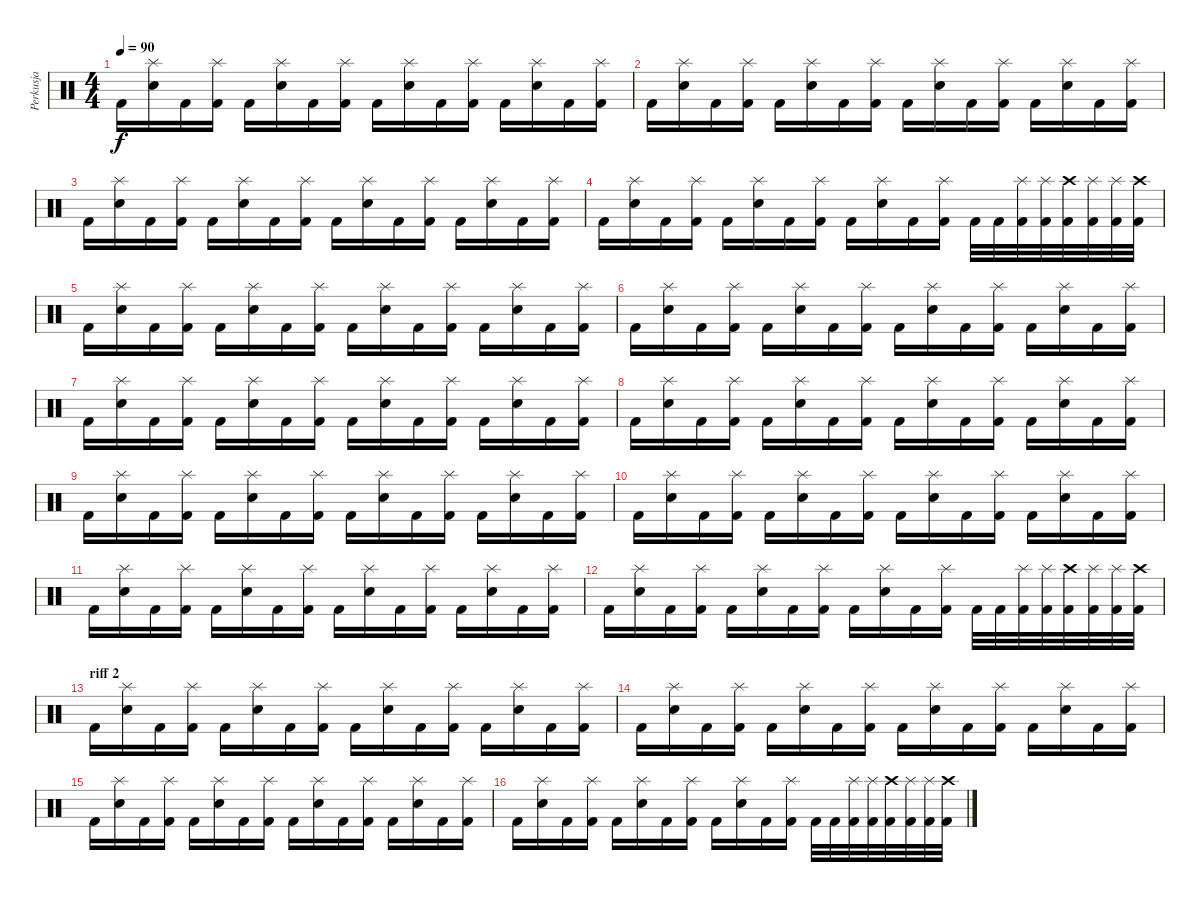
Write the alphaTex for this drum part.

\track ("Perkusja" "Perkusja") {instrument percussion}
\staff {score}
\articulation defaults
\ts (4 4)
\tempo 90
\clef neutral
\ks c "Kick (hit) 2".16{dy f}
("Splash (hit)" "Snare (hit) 2").16 "Kick (hit) 2".16 ("Splash (hit)" "Kick (hit) 2").16 "Kick (hit) 2".16 ("Splash (hit)" "Snare (hit) 2").16 "Kick (hit) 2".16 ("Splash (hit)" "Kick (hit) 2").16 "Kick (hit) 2".16 ("Splash (hit)" "Snare (hit) 2").16 "Kick (hit) 2".16 ("Splash (hit)" "Kick (hit) 2").16 "Kick (hit) 2".16 ("Splash (hit)" "Snare (hit) 2").16 "Kick (hit) 2".16 ("Splash (hit)" "Kick (hit) 2").16 |
"Kick (hit) 2".16 ("Splash (hit)" "Snare (hit) 2").16 "Kick (hit) 2".16 ("Splash (hit)" "Kick (hit) 2").16 "Kick (hit) 2".16 ("Splash (hit)" "Snare (hit) 2").16 "Kick (hit) 2".16 ("Splash (hit)" "Kick (hit) 2").16 "Kick (hit) 2".16 ("Splash (hit)" "Snare (hit) 2").16 "Kick (hit) 2".16 ("Splash (hit)" "Kick (hit) 2").16 "Kick (hit) 2".16 ("Splash (hit)" "Snare (hit) 2").16 "Kick (hit) 2".16 ("Splash (hit)" "Kick (hit) 2").16 |
"Kick (hit) 2".16 ("Splash (hit)" "Snare (hit) 2").16 "Kick (hit) 2".16 ("Splash (hit)" "Kick (hit) 2").16 "Kick (hit) 2".16 ("Splash (hit)" "Snare (hit) 2").16 "Kick (hit) 2".16 ("Splash (hit)" "Kick (hit) 2").16 "Kick (hit) 2".16 ("Splash (hit)" "Snare (hit) 2").16 "Kick (hit) 2".16 ("Splash (hit)" "Kick (hit) 2").16 "Kick (hit) 2".16 ("Splash (hit)" "Snare (hit) 2").16 "Kick (hit) 2".16 ("Splash (hit)" "Kick (hit) 2").16 |
"Kick (hit) 2".16 ("Splash (hit)" "Snare (hit) 2").16 "Kick (hit) 2".16 ("Splash (hit)" "Kick (hit) 2").16 "Kick (hit) 2".16 ("Splash (hit)" "Snare (hit) 2").16 "Kick (hit) 2".16 ("Splash (hit)" "Kick (hit) 2").16 "Kick (hit) 2".16 ("Splash (hit)" "Snare (hit) 2").16 "Kick (hit) 2".16 ("Splash (hit)" "Kick (hit) 2").16 "Kick (hit) 2".32 "Kick (hit) 2".32 ("Splash (hit)" "Kick (hit) 2").32 ("Splash (hit)" "Kick (hit) 2").32 ("Crash high (hit)" "Kick (hit) 2").32 ("Splash (hit)" "Kick (hit) 2").32 ("Splash (hit)" "Kick (hit) 2").32 ("Crash high (hit)" "Kick (hit) 2").32 |
"Kick (hit) 2".16 ("Splash (hit)" "Snare (hit) 2").16 "Kick (hit) 2".16 ("Splash (hit)" "Kick (hit) 2").16 "Kick (hit) 2".16 ("Splash (hit)" "Snare (hit) 2").16 "Kick (hit) 2".16 ("Splash (hit)" "Kick (hit) 2").16 "Kick (hit) 2".16 ("Splash (hit)" "Snare (hit) 2").16 "Kick (hit) 2".16 ("Splash (hit)" "Kick (hit) 2").16 "Kick (hit) 2".16 ("Splash (hit)" "Snare (hit) 2").16 "Kick (hit) 2".16 ("Splash (hit)" "Kick (hit) 2").16 |
"Kick (hit) 2".16 ("Splash (hit)" "Snare (hit) 2").16 "Kick (hit) 2".16 ("Splash (hit)" "Kick (hit) 2").16 "Kick (hit) 2".16 ("Splash (hit)" "Snare (hit) 2").16 "Kick (hit) 2".16 ("Splash (hit)" "Kick (hit) 2").16 "Kick (hit) 2".16 ("Splash (hit)" "Snare (hit) 2").16 "Kick (hit) 2".16 ("Splash (hit)" "Kick (hit) 2").16 "Kick (hit) 2".16 ("Splash (hit)" "Snare (hit) 2").16 "Kick (hit) 2".16 ("Splash (hit)" "Kick (hit) 2").16 |
"Kick (hit) 2".16 ("Splash (hit)" "Snare (hit) 2").16 "Kick (hit) 2".16 ("Splash (hit)" "Kick (hit) 2").16 "Kick (hit) 2".16 ("Splash (hit)" "Snare (hit) 2").16 "Kick (hit) 2".16 ("Splash (hit)" "Kick (hit) 2").16 "Kick (hit) 2".16 ("Splash (hit)" "Snare (hit) 2").16 "Kick (hit) 2".16 ("Splash (hit)" "Kick (hit) 2").16 "Kick (hit) 2".16 ("Splash (hit)" "Snare (hit) 2").16 "Kick (hit) 2".16 ("Splash (hit)" "Kick (hit) 2").16 |
"Kick (hit) 2".16 ("Splash (hit)" "Snare (hit) 2").16 "Kick (hit) 2".16 ("Splash (hit)" "Kick (hit) 2").16 "Kick (hit) 2".16 ("Splash (hit)" "Snare (hit) 2").16 "Kick (hit) 2".16 ("Splash (hit)" "Kick (hit) 2").16 "Kick (hit) 2".16 ("Splash (hit)" "Snare (hit) 2").16 "Kick (hit) 2".16 ("Splash (hit)" "Kick (hit) 2").16 "Kick (hit) 2".16 ("Splash (hit)" "Snare (hit) 2").16 "Kick (hit) 2".16 ("Splash (hit)" "Kick (hit) 2").16 |
"Kick (hit) 2".16 ("Splash (hit)" "Snare (hit) 2").16 "Kick (hit) 2".16 ("Splash (hit)" "Kick (hit) 2").16 "Kick (hit) 2".16 ("Splash (hit)" "Snare (hit) 2").16 "Kick (hit) 2".16 ("Splash (hit)" "Kick (hit) 2").16 "Kick (hit) 2".16 ("Splash (hit)" "Snare (hit) 2").16 "Kick (hit) 2".16 ("Splash (hit)" "Kick (hit) 2").16 "Kick (hit) 2".16 ("Splash (hit)" "Snare (hit) 2").16 "Kick (hit) 2".16 ("Splash (hit)" "Kick (hit) 2").16 |
"Kick (hit) 2".16 ("Splash (hit)" "Snare (hit) 2").16 "Kick (hit) 2".16 ("Splash (hit)" "Kick (hit) 2").16 "Kick (hit) 2".16 ("Splash (hit)" "Snare (hit) 2").16 "Kick (hit) 2".16 ("Splash (hit)" "Kick (hit) 2").16 "Kick (hit) 2".16 ("Splash (hit)" "Snare (hit) 2").16 "Kick (hit) 2".16 ("Splash (hit)" "Kick (hit) 2").16 "Kick (hit) 2".16 ("Splash (hit)" "Snare (hit) 2").16 "Kick (hit) 2".16 ("Splash (hit)" "Kick (hit) 2").16 |
"Kick (hit) 2".16 ("Splash (hit)" "Snare (hit) 2").16 "Kick (hit) 2".16 ("Splash (hit)" "Kick (hit) 2").16 "Kick (hit) 2".16 ("Splash (hit)" "Snare (hit) 2").16 "Kick (hit) 2".16 ("Splash (hit)" "Kick (hit) 2").16 "Kick (hit) 2".16 ("Splash (hit)" "Snare (hit) 2").16 "Kick (hit) 2".16 ("Splash (hit)" "Kick (hit) 2").16 "Kick (hit) 2".16 ("Splash (hit)" "Snare (hit) 2").16 "Kick (hit) 2".16 ("Splash (hit)" "Kick (hit) 2").16 |
"Kick (hit) 2".16 ("Splash (hit)" "Snare (hit) 2").16 "Kick (hit) 2".16 ("Splash (hit)" "Kick (hit) 2").16 "Kick (hit) 2".16 ("Splash (hit)" "Snare (hit) 2").16 "Kick (hit) 2".16 ("Splash (hit)" "Kick (hit) 2").16 "Kick (hit) 2".16 ("Splash (hit)" "Snare (hit) 2").16 "Kick (hit) 2".16 ("Splash (hit)" "Kick (hit) 2").16 "Kick (hit) 2".32 "Kick (hit) 2".32 ("Splash (hit)" "Kick (hit) 2").32 ("Splash (hit)" "Kick (hit) 2").32 ("Crash high (hit)" "Kick (hit) 2").32 ("Splash (hit)" "Kick (hit) 2").32 ("Splash (hit)" "Kick (hit) 2").32 ("Crash high (hit)" "Kick (hit) 2").32 |
\section ("" "riff 2")
"Kick (hit) 2".16 ("Splash (hit)" "Snare (hit) 2").16 "Kick (hit) 2".16 ("Splash (hit)" "Kick (hit) 2").16 "Kick (hit) 2".16 ("Splash (hit)" "Snare (hit) 2").16 "Kick (hit) 2".16 ("Splash (hit)" "Kick (hit) 2").16 "Kick (hit) 2".16 ("Splash (hit)" "Snare (hit) 2").16 "Kick (hit) 2".16 ("Splash (hit)" "Kick (hit) 2").16 "Kick (hit) 2".16 ("Splash (hit)" "Snare (hit) 2").16 "Kick (hit) 2".16 ("Splash (hit)" "Kick (hit) 2").16 |
"Kick (hit) 2".16 ("Splash (hit)" "Snare (hit) 2").16 "Kick (hit) 2".16 ("Splash (hit)" "Kick (hit) 2").16 "Kick (hit) 2".16 ("Splash (hit)" "Snare (hit) 2").16 "Kick (hit) 2".16 ("Splash (hit)" "Kick (hit) 2").16 "Kick (hit) 2".16 ("Splash (hit)" "Snare (hit) 2").16 "Kick (hit) 2".16 ("Splash (hit)" "Kick (hit) 2").16 "Kick (hit) 2".16 ("Splash (hit)" "Snare (hit) 2").16 "Kick (hit) 2".16 ("Splash (hit)" "Kick (hit) 2").16 |
"Kick (hit) 2".16 ("Splash (hit)" "Snare (hit) 2").16 "Kick (hit) 2".16 ("Splash (hit)" "Kick (hit) 2").16 "Kick (hit) 2".16 ("Splash (hit)" "Snare (hit) 2").16 "Kick (hit) 2".16 ("Splash (hit)" "Kick (hit) 2").16 "Kick (hit) 2".16 ("Splash (hit)" "Snare (hit) 2").16 "Kick (hit) 2".16 ("Splash (hit)" "Kick (hit) 2").16 "Kick (hit) 2".16 ("Splash (hit)" "Snare (hit) 2").16 "Kick (hit) 2".16 ("Splash (hit)" "Kick (hit) 2").16 |
"Kick (hit) 2".16 ("Splash (hit)" "Snare (hit) 2").16 "Kick (hit) 2".16 ("Splash (hit)" "Kick (hit) 2").16 "Kick (hit) 2".16 ("Splash (hit)" "Snare (hit) 2").16 "Kick (hit) 2".16 ("Splash (hit)" "Kick (hit) 2").16 "Kick (hit) 2".16 ("Splash (hit)" "Snare (hit) 2").16 "Kick (hit) 2".16 ("Splash (hit)" "Kick (hit) 2").16 "Kick (hit) 2".32 "Kick (hit) 2".32 ("Splash (hit)" "Kick (hit) 2").32 ("Splash (hit)" "Kick (hit) 2").32 ("Crash high (hit)" "Kick (hit) 2").32 ("Splash (hit)" "Kick (hit) 2").32 ("Splash (hit)" "Kick (hit) 2").32 ("Crash high (hit)" "Kick (hit) 2").32
